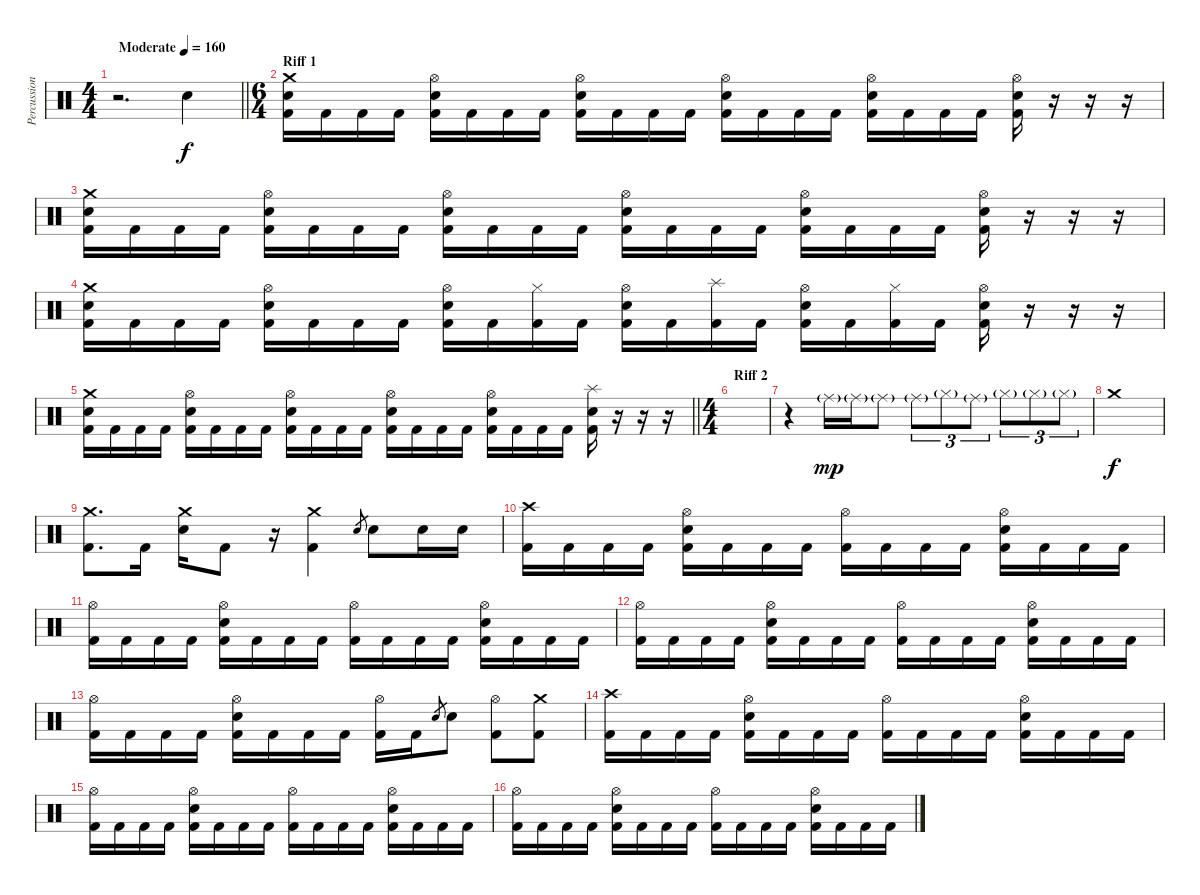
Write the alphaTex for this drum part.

\track ("Percussion" "Percussion") {instrument percussion}
\staff {score}
\articulation defaults
\ts (4 4)
\tempo (160 "Moderate")
\clef neutral
\barLineRight lightlight
\ks c
r.2{d dy f} "Snare (hit) 2".4 |
\ts (6 4)
\section ("" "Riff 1")
("Snare (hit) 2" "Kick (hit) 2" "Crash medium (hit)").16 "Kick (hit) 2".16 "Kick (hit) 2".16 "Kick (hit) 2".16 ("Hi-Hat (open)" "Snare (hit) 2" "Kick (hit) 2").16 "Kick (hit) 2".16 "Kick (hit) 2".16 "Kick (hit) 2".16 ("Hi-Hat (open)" "Snare (hit) 2" "Kick (hit) 2").16 "Kick (hit) 2".16 "Kick (hit) 2".16 "Kick (hit) 2".16 ("Hi-Hat (open)" "Snare (hit) 2" "Kick (hit) 2").16 "Kick (hit) 2".16 "Kick (hit) 2".16 "Kick (hit) 2".16 ("Hi-Hat (open)" "Snare (hit) 2" "Kick (hit) 2").16 "Kick (hit) 2".16 "Kick (hit) 2".16 "Kick (hit) 2".16 ("Snare (hit) 2" "Hi-Hat (open)" "Kick (hit) 2").16 r.16 r.16 r.16 |
("Snare (hit) 2" "Kick (hit) 2" "Crash medium (hit)").16 "Kick (hit) 2".16 "Kick (hit) 2".16 "Kick (hit) 2".16 ("Hi-Hat (open)" "Snare (hit) 2" "Kick (hit) 2").16 "Kick (hit) 2".16 "Kick (hit) 2".16 "Kick (hit) 2".16 ("Hi-Hat (open)" "Snare (hit) 2" "Kick (hit) 2").16 "Kick (hit) 2".16 "Kick (hit) 2".16 "Kick (hit) 2".16 ("Hi-Hat (open)" "Snare (hit) 2" "Kick (hit) 2").16 "Kick (hit) 2".16 "Kick (hit) 2".16 "Kick (hit) 2".16 ("Hi-Hat (open)" "Snare (hit) 2" "Kick (hit) 2").16 "Kick (hit) 2".16 "Kick (hit) 2".16 "Kick (hit) 2".16 ("Snare (hit) 2" "Hi-Hat (open)" "Kick (hit) 2").16 r.16 r.16 r.16 |
("Snare (hit) 2" "Kick (hit) 2" "Crash medium (hit)").16 "Kick (hit) 2".16 "Kick (hit) 2".16 "Kick (hit) 2".16 ("Hi-Hat (open)" "Snare (hit) 2" "Kick (hit) 2").16 "Kick (hit) 2".16 "Kick (hit) 2".16 "Kick (hit) 2".16 ("Hi-Hat (open)" "Snare (hit) 2" "Kick (hit) 2").16 "Kick (hit) 2".16 ("Hi-Hat (closed)" "Kick (hit) 2").16 "Kick (hit) 2".16 ("Hi-Hat (open)" "Snare (hit) 2" "Kick (hit) 2").16 "Kick (hit) 2".16 ("Splash (hit)" "Kick (hit) 2").16 "Kick (hit) 2".16 ("Hi-Hat (open)" "Snare (hit) 2" "Kick (hit) 2").16 "Kick (hit) 2".16 ("Hi-Hat (closed)" "Kick (hit) 2").16 "Kick (hit) 2".16 ("Snare (hit) 2" "Hi-Hat (open)" "Kick (hit) 2").16 r.16 r.16 r.16 |
\barLineRight lightlight
("Snare (hit) 2" "Kick (hit) 2" "Crash medium (hit)").16 "Kick (hit) 2".16 "Kick (hit) 2".16 "Kick (hit) 2".16 ("Hi-Hat (open)" "Snare (hit) 2" "Kick (hit) 2").16 "Kick (hit) 2".16 "Kick (hit) 2".16 "Kick (hit) 2".16 ("Hi-Hat (open)" "Snare (hit) 2" "Kick (hit) 2").16 "Kick (hit) 2".16 "Kick (hit) 2".16 "Kick (hit) 2".16 ("Hi-Hat (open)" "Snare (hit) 2" "Kick (hit) 2").16 "Kick (hit) 2".16 "Kick (hit) 2".16 "Kick (hit) 2".16 ("Hi-Hat (open)" "Snare (hit) 2" "Kick (hit) 2").16 "Kick (hit) 2".16 "Kick (hit) 2".16 "Kick (hit) 2".16 ("Snare (hit) 2" "Splash (hit)" "Kick (hit) 2").16 r.16 r.16 r.16 |
\ts (4 4)
\section ("" "Riff 2")
|
r.4 "Ride (middle)"{g}.16{dy mp} "Ride (middle)"{g}.16 "Ride (middle)"{g}.8 "Ride (middle)"{g}.8{tu (3 2)} "Hi-Hat (closed)"{g}.8{tu (3 2)} "Ride (middle)"{g}.8{tu (3 2)} "Hi-Hat (closed)"{g}.8{tu (3 2)} "Hi-Hat (closed)"{g}.8{tu (3 2)} "Hi-Hat (closed)"{g}.8{tu (3 2)} |
"Crash medium (hit)".1{dy f} |
("Kick (hit) 2" "Crash medium (hit)").8{d} "Kick (hit) 2".16 ("Snare (hit) 2" "Crash medium (hit)").16 "Kick (hit) 2".8 r.16 ("Kick (hit) 2" "Crash medium (hit)").4 "Snare (hit) 2".8{gr} "Snare (hit) 2".8 "Snare (hit) 2".16 "Snare (hit) 2".16 |
("Crash high (hit)" "Kick (hit) 2").16 "Kick (hit) 2".16 "Kick (hit) 2".16 "Kick (hit) 2".16 ("Hi-Hat (open)" "Snare (hit) 2" "Kick (hit) 2").16 "Kick (hit) 2".16 "Kick (hit) 2".16 "Kick (hit) 2".16 ("Hi-Hat (open)" "Kick (hit) 2").16 "Kick (hit) 2".16 "Kick (hit) 2".16 "Kick (hit) 2".16 ("Hi-Hat (open)" "Snare (hit) 2" "Kick (hit) 2").16 "Kick (hit) 2".16 "Kick (hit) 2".16 "Kick (hit) 2".16 |
("Hi-Hat (open)" "Kick (hit) 2").16 "Kick (hit) 2".16 "Kick (hit) 2".16 "Kick (hit) 2".16 ("Hi-Hat (open)" "Snare (hit) 2" "Kick (hit) 2").16 "Kick (hit) 2".16 "Kick (hit) 2".16 "Kick (hit) 2".16 ("Hi-Hat (open)" "Kick (hit) 2").16 "Kick (hit) 2".16 "Kick (hit) 2".16 "Kick (hit) 2".16 ("Hi-Hat (open)" "Snare (hit) 2" "Kick (hit) 2").16 "Kick (hit) 2".16 "Kick (hit) 2".16 "Kick (hit) 2".16 |
("Hi-Hat (open)" "Kick (hit) 2").16 "Kick (hit) 2".16 "Kick (hit) 2".16 "Kick (hit) 2".16 ("Hi-Hat (open)" "Snare (hit) 2" "Kick (hit) 2").16 "Kick (hit) 2".16 "Kick (hit) 2".16 "Kick (hit) 2".16 ("Hi-Hat (open)" "Kick (hit) 2").16 "Kick (hit) 2".16 "Kick (hit) 2".16 "Kick (hit) 2".16 ("Hi-Hat (open)" "Snare (hit) 2" "Kick (hit) 2").16 "Kick (hit) 2".16 "Kick (hit) 2".16 "Kick (hit) 2".16 |
("Hi-Hat (open)" "Kick (hit) 2").16 "Kick (hit) 2".16 "Kick (hit) 2".16 "Kick (hit) 2".16 ("Hi-Hat (open)" "Snare (hit) 2" "Kick (hit) 2").16 "Kick (hit) 2".16 "Kick (hit) 2".16 "Kick (hit) 2".16 ("Hi-Hat (open)" "Kick (hit) 2").16 "Kick (hit) 2".16 "Snare (hit) 2".8{gr} "Snare (hit) 2".8 ("Hi-Hat (open)" "Kick (hit) 2").8 ("Kick (hit) 2" "Crash medium (hit)").8 |
("Crash high (hit)" "Kick (hit) 2").16 "Kick (hit) 2".16 "Kick (hit) 2".16 "Kick (hit) 2".16 ("Hi-Hat (open)" "Snare (hit) 2" "Kick (hit) 2").16 "Kick (hit) 2".16 "Kick (hit) 2".16 "Kick (hit) 2".16 ("Hi-Hat (open)" "Kick (hit) 2").16 "Kick (hit) 2".16 "Kick (hit) 2".16 "Kick (hit) 2".16 ("Hi-Hat (open)" "Snare (hit) 2" "Kick (hit) 2").16 "Kick (hit) 2".16 "Kick (hit) 2".16 "Kick (hit) 2".16 |
("Hi-Hat (open)" "Kick (hit) 2").16 "Kick (hit) 2".16 "Kick (hit) 2".16 "Kick (hit) 2".16 ("Hi-Hat (open)" "Snare (hit) 2" "Kick (hit) 2").16 "Kick (hit) 2".16 "Kick (hit) 2".16 "Kick (hit) 2".16 ("Hi-Hat (open)" "Kick (hit) 2").16 "Kick (hit) 2".16 "Kick (hit) 2".16 "Kick (hit) 2".16 ("Hi-Hat (open)" "Snare (hit) 2" "Kick (hit) 2").16 "Kick (hit) 2".16 "Kick (hit) 2".16 "Kick (hit) 2".16 |
("Hi-Hat (open)" "Kick (hit) 2").16 "Kick (hit) 2".16 "Kick (hit) 2".16 "Kick (hit) 2".16 ("Hi-Hat (open)" "Snare (hit) 2" "Kick (hit) 2").16 "Kick (hit) 2".16 "Kick (hit) 2".16 "Kick (hit) 2".16 ("Hi-Hat (open)" "Kick (hit) 2").16 "Kick (hit) 2".16 "Kick (hit) 2".16 "Kick (hit) 2".16 ("Hi-Hat (open)" "Snare (hit) 2" "Kick (hit) 2").16 "Kick (hit) 2".16 "Kick (hit) 2".16 "Kick (hit) 2".16
